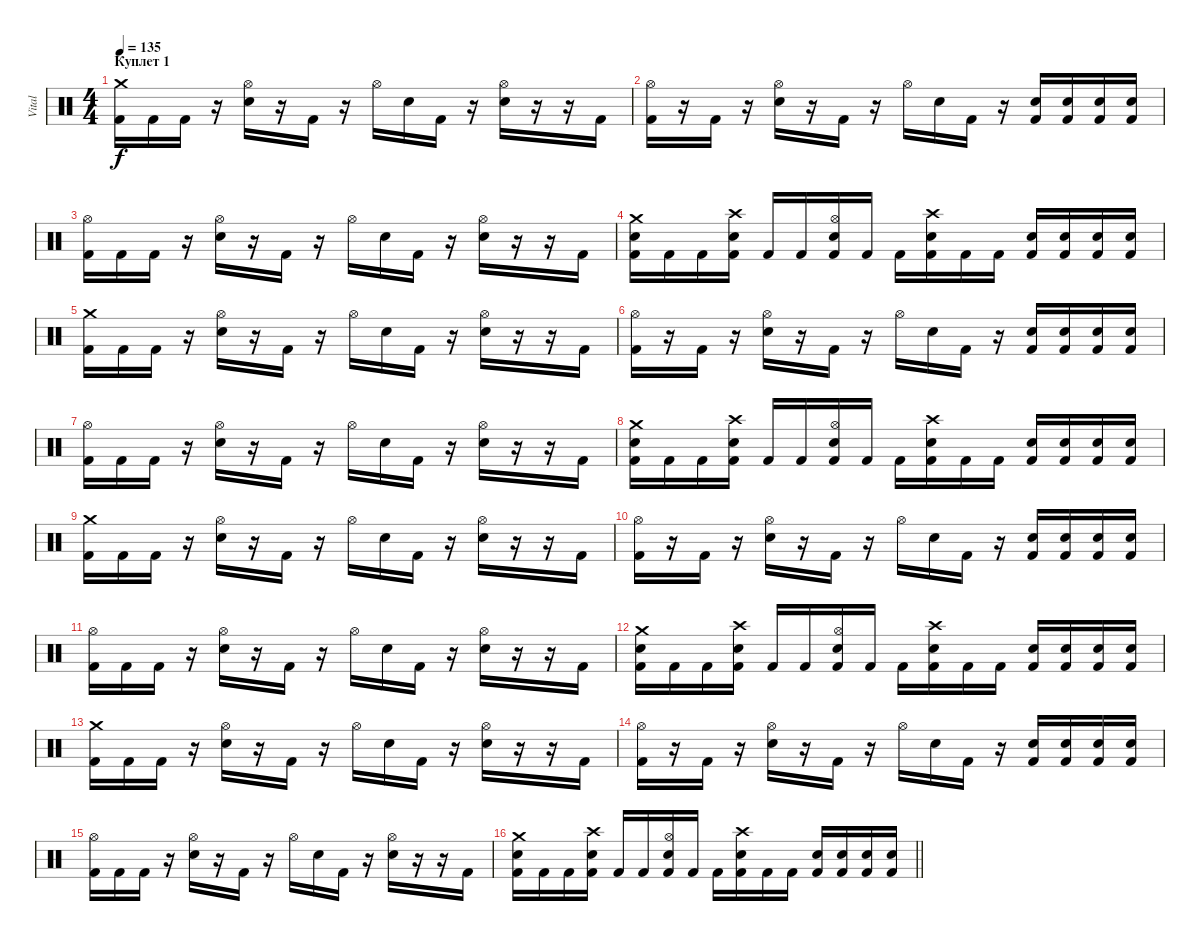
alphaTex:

\track ("Vital" "Vital") {instrument percussion}
\staff {score}
\articulation defaults
\ts (4 4)
\section ("" "Куплет 1")
\tempo 135
\clef neutral
\ks c
("Crash medium (hit)" "Kick (hit) 2").16{dy f} "Kick (hit) 2".16 "Kick (hit) 2".16 r.16 ("Hi-Hat (open)" "Snare (hit) 2").16 r.16 "Kick (hit) 2".16 r.16 "Hi-Hat (open)".16 "Snare (hit) 2".16 "Kick (hit) 2".16 r.16 ("Hi-Hat (open)" "Snare (hit) 2").16 r.16 r.16 "Kick (hit) 2".16 |
("Hi-Hat (open)" "Kick (hit) 2").16 r.16 "Kick (hit) 2".16 r.16 ("Hi-Hat (open)" "Snare (hit) 2").16 r.16 "Kick (hit) 2".16 r.16 "Hi-Hat (open)".16 "Snare (hit) 2".16 "Kick (hit) 2".16 r.16 ("Snare (hit) 2" "Kick (hit) 2").16 ("Snare (hit) 2" "Kick (hit) 2").16 ("Snare (hit) 2" "Kick (hit) 2").16 ("Snare (hit) 2" "Kick (hit) 2").16 |
("Hi-Hat (open)" "Kick (hit) 2").16 "Kick (hit) 2".16 "Kick (hit) 2".16 r.16 ("Hi-Hat (open)" "Snare (hit) 2").16 r.16 "Kick (hit) 2".16 r.16 "Hi-Hat (open)".16 "Snare (hit) 2".16 "Kick (hit) 2".16 r.16 ("Hi-Hat (open)" "Snare (hit) 2").16 r.16 r.16 "Kick (hit) 2".16 |
("Crash medium (hit)" "Snare (hit) 2" "Kick (hit) 2").16 "Kick (hit) 2".16 "Kick (hit) 2".16 ("Crash high (hit)" "Snare (hit) 2" "Kick (hit) 2").16 "Kick (hit) 2".16 "Kick (hit) 2".16 ("Hi-Hat (open)" "Snare (hit) 2" "Kick (hit) 2").16 "Kick (hit) 2".16 "Kick (hit) 2".16 ("Crash high (hit)" "Snare (hit) 2" "Kick (hit) 2").16 "Kick (hit) 2".16 "Kick (hit) 2".16 ("Snare (hit) 2" "Kick (hit) 2").16 ("Snare (hit) 2" "Kick (hit) 2").16 ("Snare (hit) 2" "Kick (hit) 2").16 ("Snare (hit) 2" "Kick (hit) 2").16 |
("Crash medium (hit)" "Kick (hit) 2").16 "Kick (hit) 2".16 "Kick (hit) 2".16 r.16 ("Hi-Hat (open)" "Snare (hit) 2").16 r.16 "Kick (hit) 2".16 r.16 "Hi-Hat (open)".16 "Snare (hit) 2".16 "Kick (hit) 2".16 r.16 ("Hi-Hat (open)" "Snare (hit) 2").16 r.16 r.16 "Kick (hit) 2".16 |
("Hi-Hat (open)" "Kick (hit) 2").16 r.16 "Kick (hit) 2".16 r.16 ("Hi-Hat (open)" "Snare (hit) 2").16 r.16 "Kick (hit) 2".16 r.16 "Hi-Hat (open)".16 "Snare (hit) 2".16 "Kick (hit) 2".16 r.16 ("Snare (hit) 2" "Kick (hit) 2").16 ("Snare (hit) 2" "Kick (hit) 2").16 ("Snare (hit) 2" "Kick (hit) 2").16 ("Snare (hit) 2" "Kick (hit) 2").16 |
("Hi-Hat (open)" "Kick (hit) 2").16 "Kick (hit) 2".16 "Kick (hit) 2".16 r.16 ("Hi-Hat (open)" "Snare (hit) 2").16 r.16 "Kick (hit) 2".16 r.16 "Hi-Hat (open)".16 "Snare (hit) 2".16 "Kick (hit) 2".16 r.16 ("Hi-Hat (open)" "Snare (hit) 2").16 r.16 r.16 "Kick (hit) 2".16 |
("Crash medium (hit)" "Snare (hit) 2" "Kick (hit) 2").16 "Kick (hit) 2".16 "Kick (hit) 2".16 ("Crash high (hit)" "Snare (hit) 2" "Kick (hit) 2").16 "Kick (hit) 2".16 "Kick (hit) 2".16 ("Hi-Hat (open)" "Snare (hit) 2" "Kick (hit) 2").16 "Kick (hit) 2".16 "Kick (hit) 2".16 ("Crash high (hit)" "Snare (hit) 2" "Kick (hit) 2").16 "Kick (hit) 2".16 "Kick (hit) 2".16 ("Snare (hit) 2" "Kick (hit) 2").16 ("Snare (hit) 2" "Kick (hit) 2").16 ("Snare (hit) 2" "Kick (hit) 2").16 ("Snare (hit) 2" "Kick (hit) 2").16 |
("Crash medium (hit)" "Kick (hit) 2").16 "Kick (hit) 2".16 "Kick (hit) 2".16 r.16 ("Hi-Hat (open)" "Snare (hit) 2").16 r.16 "Kick (hit) 2".16 r.16 "Hi-Hat (open)".16 "Snare (hit) 2".16 "Kick (hit) 2".16 r.16 ("Hi-Hat (open)" "Snare (hit) 2").16 r.16 r.16 "Kick (hit) 2".16 |
("Hi-Hat (open)" "Kick (hit) 2").16 r.16 "Kick (hit) 2".16 r.16 ("Hi-Hat (open)" "Snare (hit) 2").16 r.16 "Kick (hit) 2".16 r.16 "Hi-Hat (open)".16 "Snare (hit) 2".16 "Kick (hit) 2".16 r.16 ("Snare (hit) 2" "Kick (hit) 2").16 ("Snare (hit) 2" "Kick (hit) 2").16 ("Snare (hit) 2" "Kick (hit) 2").16 ("Snare (hit) 2" "Kick (hit) 2").16 |
("Hi-Hat (open)" "Kick (hit) 2").16 "Kick (hit) 2".16 "Kick (hit) 2".16 r.16 ("Hi-Hat (open)" "Snare (hit) 2").16 r.16 "Kick (hit) 2".16 r.16 "Hi-Hat (open)".16 "Snare (hit) 2".16 "Kick (hit) 2".16 r.16 ("Hi-Hat (open)" "Snare (hit) 2").16 r.16 r.16 "Kick (hit) 2".16 |
("Crash medium (hit)" "Snare (hit) 2" "Kick (hit) 2").16 "Kick (hit) 2".16 "Kick (hit) 2".16 ("Crash high (hit)" "Snare (hit) 2" "Kick (hit) 2").16 "Kick (hit) 2".16 "Kick (hit) 2".16 ("Hi-Hat (open)" "Snare (hit) 2" "Kick (hit) 2").16 "Kick (hit) 2".16 "Kick (hit) 2".16 ("Crash high (hit)" "Snare (hit) 2" "Kick (hit) 2").16 "Kick (hit) 2".16 "Kick (hit) 2".16 ("Snare (hit) 2" "Kick (hit) 2").16 ("Snare (hit) 2" "Kick (hit) 2").16 ("Snare (hit) 2" "Kick (hit) 2").16 ("Snare (hit) 2" "Kick (hit) 2").16 |
("Crash medium (hit)" "Kick (hit) 2").16 "Kick (hit) 2".16 "Kick (hit) 2".16 r.16 ("Hi-Hat (open)" "Snare (hit) 2").16 r.16 "Kick (hit) 2".16 r.16 "Hi-Hat (open)".16 "Snare (hit) 2".16 "Kick (hit) 2".16 r.16 ("Hi-Hat (open)" "Snare (hit) 2").16 r.16 r.16 "Kick (hit) 2".16 |
("Hi-Hat (open)" "Kick (hit) 2").16 r.16 "Kick (hit) 2".16 r.16 ("Hi-Hat (open)" "Snare (hit) 2").16 r.16 "Kick (hit) 2".16 r.16 "Hi-Hat (open)".16 "Snare (hit) 2".16 "Kick (hit) 2".16 r.16 ("Snare (hit) 2" "Kick (hit) 2").16 ("Snare (hit) 2" "Kick (hit) 2").16 ("Snare (hit) 2" "Kick (hit) 2").16 ("Snare (hit) 2" "Kick (hit) 2").16 |
("Hi-Hat (open)" "Kick (hit) 2").16 "Kick (hit) 2".16 "Kick (hit) 2".16 r.16 ("Hi-Hat (open)" "Snare (hit) 2").16 r.16 "Kick (hit) 2".16 r.16 "Hi-Hat (open)".16 "Snare (hit) 2".16 "Kick (hit) 2".16 r.16 ("Hi-Hat (open)" "Snare (hit) 2").16 r.16 r.16 "Kick (hit) 2".16 |
\barLineRight lightlight
("Crash medium (hit)" "Snare (hit) 2" "Kick (hit) 2").16 "Kick (hit) 2".16 "Kick (hit) 2".16 ("Crash high (hit)" "Snare (hit) 2" "Kick (hit) 2").16 "Kick (hit) 2".16 "Kick (hit) 2".16 ("Hi-Hat (open)" "Snare (hit) 2" "Kick (hit) 2").16 "Kick (hit) 2".16 "Kick (hit) 2".16 ("Crash high (hit)" "Snare (hit) 2" "Kick (hit) 2").16 "Kick (hit) 2".16 "Kick (hit) 2".16 ("Snare (hit) 2" "Kick (hit) 2").16 ("Snare (hit) 2" "Kick (hit) 2").16 ("Snare (hit) 2" "Kick (hit) 2").16 ("Snare (hit) 2" "Kick (hit) 2").16
